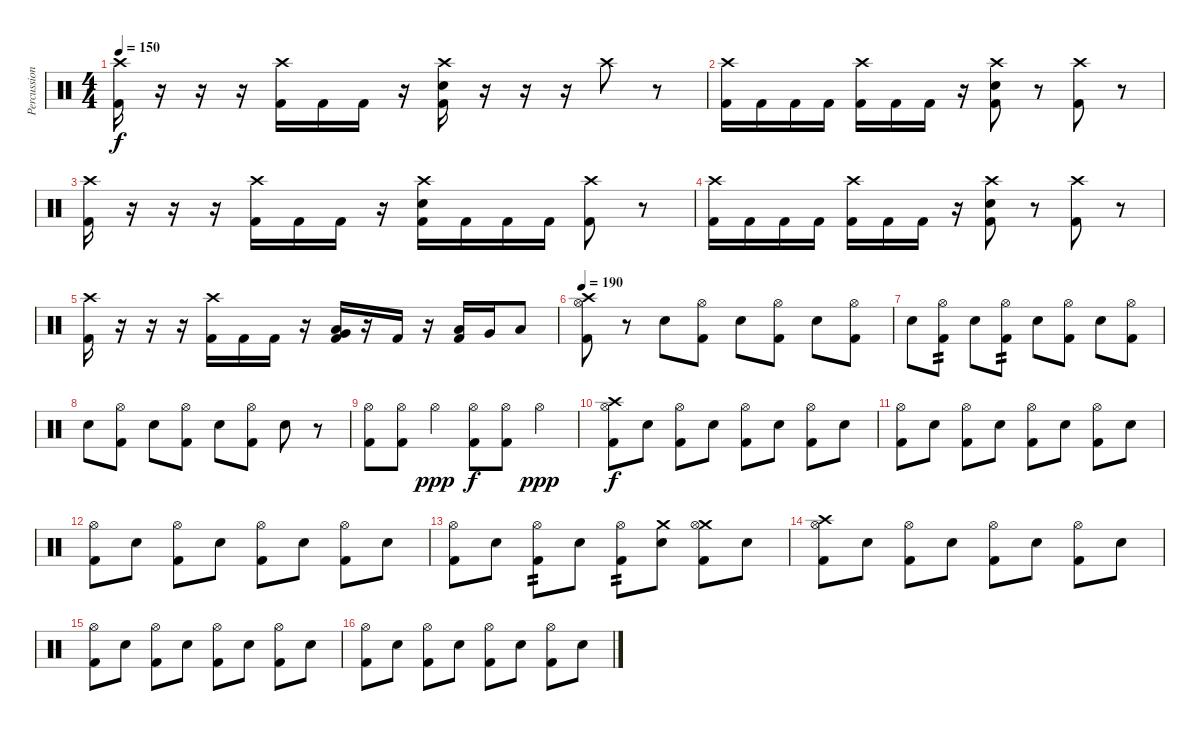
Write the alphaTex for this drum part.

\track ("Percussion" "Percussion") {instrument percussion}
\staff {score}
\articulation defaults
\ts (4 4)
\tempo 150
\clef neutral
\ks c
("Crash high (hit)" "Kick (hit) 2").16{dy f} r.16 r.16 r.16 ("Crash high (hit)" "Kick (hit) 2").16 "Kick (hit) 2".16 "Kick (hit) 2".16 r.16 ("Crash high (hit)" "Electric Snare (hit)" "Kick (hit) 2").16 r.16 r.16 r.16 "Crash high (hit)".8 r.8 |
("Crash high (hit)" "Kick (hit) 2").16 "Kick (hit) 2".16 "Kick (hit) 2".16 "Kick (hit) 2".16 ("Crash high (hit)" "Kick (hit) 2").16 "Kick (hit) 2".16 "Kick (hit) 2".16 r.16 ("Crash high (hit)" "Electric Snare (hit)" "Kick (hit) 2").8 r.8 ("Crash high (hit)" "Kick (hit) 2").8 r.8 |
("Crash high (hit)" "Kick (hit) 2").16 r.16 r.16 r.16 ("Crash high (hit)" "Kick (hit) 2").16 "Kick (hit) 2".16 "Kick (hit) 2".16 r.16 ("Crash high (hit)" "Electric Snare (hit)" "Kick (hit) 2").16 "Kick (hit) 2".16 "Kick (hit) 2".16 "Kick (hit) 2".16 ("Crash high (hit)" "Kick (hit) 2").8 r.8 |
("Crash high (hit)" "Kick (hit) 2").16 "Kick (hit) 2".16 "Kick (hit) 2".16 "Kick (hit) 2".16 ("Crash high (hit)" "Kick (hit) 2").16 "Kick (hit) 2".16 "Kick (hit) 2".16 r.16 ("Crash high (hit)" "Electric Snare (hit)" "Kick (hit) 2").8 r.8 ("Crash high (hit)" "Kick (hit) 2").8 r.8 |
("Crash high (hit)" "Kick (hit) 2").16 r.16 r.16 r.16 ("Crash high (hit)" "Kick (hit) 2").16 "Kick (hit) 2".16 "Kick (hit) 2".16 r.16 ("Low Tom (hit)" "Very Low Tom (hit)" "Kick (hit) 2").16 r.16 "Kick (hit) 2".16 r.16 ("Low Tom (hit)" "Kick (hit) 2").16 "Very Low Tom (hit)".16 "Low Floor Tom (hit)".8 |
\tempo 190
("Crash high (hit)" "Hi-Hat (open)" "Kick (hit) 2").8 r.8 "Electric Snare (hit)".8 ("Hi-Hat (open)" "Kick (hit) 2").8 "Electric Snare (hit)".8 ("Hi-Hat (open)" "Kick (hit) 2").8 "Electric Snare (hit)".8 ("Hi-Hat (open)" "Kick (hit) 2").8 |
"Electric Snare (hit)".8 ("Hi-Hat (open)" "Kick (hit) 2").8{tp 2} "Electric Snare (hit)".8 ("Hi-Hat (open)" "Kick (hit) 2").8{tp 2} "Electric Snare (hit)".8 ("Hi-Hat (open)" "Kick (hit) 2").8 "Electric Snare (hit)".8 ("Hi-Hat (open)" "Kick (hit) 2").8 |
"Electric Snare (hit)".8 ("Hi-Hat (open)" "Kick (hit) 2").8 "Electric Snare (hit)".8 ("Hi-Hat (open)" "Kick (hit) 2").8 "Electric Snare (hit)".8 ("Hi-Hat (open)" "Kick (hit) 2").8 "Electric Snare (hit)".8 r.8 |
("Hi-Hat (open)" "Kick (hit) 2").8 ("Hi-Hat (open)" "Kick (hit) 2").8 "Hi-Hat (open)".4{dy ppp} ("Hi-Hat (open)" "Kick (hit) 2").8{dy f} ("Hi-Hat (open)" "Kick (hit) 2").8 "Hi-Hat (open)".4{dy ppp} |
("Crash high (hit)" "Hi-Hat (open)" "Kick (hit) 2").8{dy f} "Electric Snare (hit)".8 ("Hi-Hat (open)" "Kick (hit) 2").8 "Electric Snare (hit)".8 ("Hi-Hat (open)" "Kick (hit) 2").8 "Electric Snare (hit)".8 ("Hi-Hat (open)" "Kick (hit) 2").8 "Electric Snare (hit)".8 |
("Hi-Hat (open)" "Kick (hit) 2").8 "Electric Snare (hit)".8 ("Hi-Hat (open)" "Kick (hit) 2").8 "Electric Snare (hit)".8 ("Hi-Hat (open)" "Kick (hit) 2").8 "Electric Snare (hit)".8 ("Hi-Hat (open)" "Kick (hit) 2").8 "Electric Snare (hit)".8 |
("Hi-Hat (open)" "Kick (hit) 2").8 "Electric Snare (hit)".8 ("Hi-Hat (open)" "Kick (hit) 2").8 "Electric Snare (hit)".8 ("Hi-Hat (open)" "Kick (hit) 2").8 "Electric Snare (hit)".8 ("Hi-Hat (open)" "Kick (hit) 2").8 "Electric Snare (hit)".8 |
("Hi-Hat (open)" "Kick (hit) 2").8 "Electric Snare (hit)".8 ("Hi-Hat (open)" "Kick (hit) 2").8{tp 2} "Electric Snare (hit)".8 ("Hi-Hat (open)" "Kick (hit) 2").8{tp 2} ("Crash medium (hit)" "Electric Snare (hit)").8 ("Crash medium (hit)" "Hi-Hat (open)" "Kick (hit) 2").8 "Electric Snare (hit)".8 |
("Crash high (hit)" "Hi-Hat (open)" "Kick (hit) 2").8 "Electric Snare (hit)".8 ("Hi-Hat (open)" "Kick (hit) 2").8 "Electric Snare (hit)".8 ("Hi-Hat (open)" "Kick (hit) 2").8 "Electric Snare (hit)".8 ("Hi-Hat (open)" "Kick (hit) 2").8 "Electric Snare (hit)".8 |
("Hi-Hat (open)" "Kick (hit) 2").8 "Electric Snare (hit)".8 ("Hi-Hat (open)" "Kick (hit) 2").8 "Electric Snare (hit)".8 ("Hi-Hat (open)" "Kick (hit) 2").8 "Electric Snare (hit)".8 ("Hi-Hat (open)" "Kick (hit) 2").8 "Electric Snare (hit)".8 |
("Hi-Hat (open)" "Kick (hit) 2").8 "Electric Snare (hit)".8 ("Hi-Hat (open)" "Kick (hit) 2").8 "Electric Snare (hit)".8 ("Hi-Hat (open)" "Kick (hit) 2").8 "Electric Snare (hit)".8 ("Hi-Hat (open)" "Kick (hit) 2").8 "Electric Snare (hit)".8
